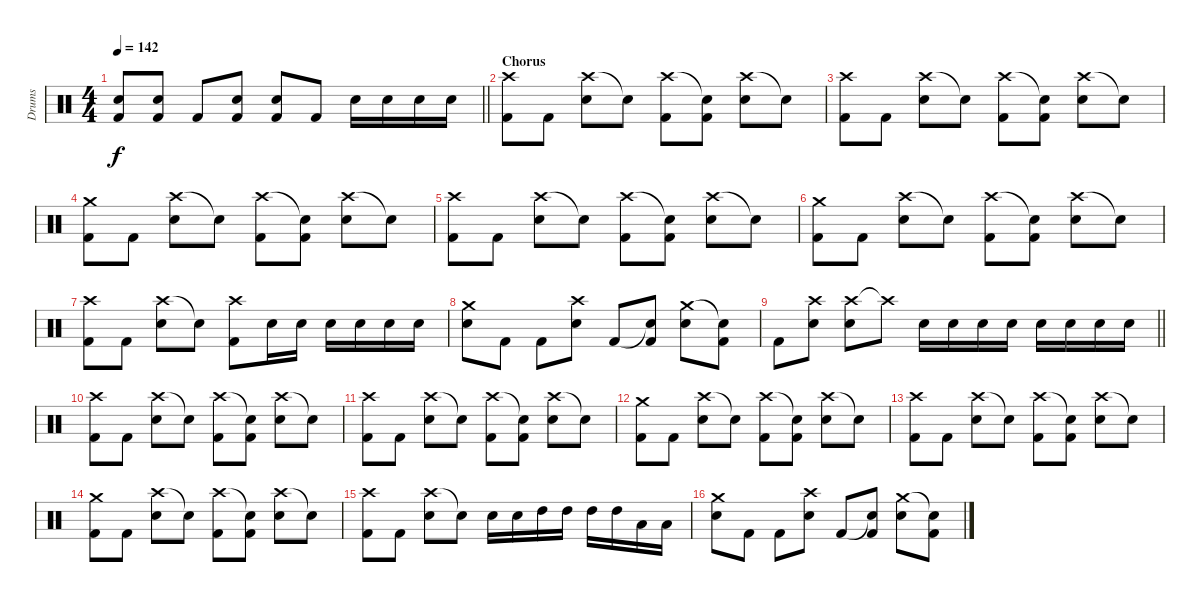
\track ("Drums" "Drums") {instrument percussion}
\staff {score}
\articulation defaults
\ts (4 4)
\tempo 142
\clef neutral
\barLineRight lightlight
\ks c
("Electric Snare (hit)" "Kick (hit) 2").8{dy f} ("Electric Snare (hit)" "Kick (hit) 2").8 "Kick (hit) 2".8 ("Electric Snare (hit)" "Kick (hit) 2").8 ("Electric Snare (hit)" "Kick (hit) 2").8 "Kick (hit) 2".8 "Electric Snare (hit)".16 "Electric Snare (hit)".16 "Electric Snare (hit)".16 "Electric Snare (hit)".16 |
\section ("" "Chorus")
("Crash high (hit)" "Kick (hit) 2").8 "Kick (hit) 2".8 ("Crash high (hit)" "Electric Snare (hit)").8 "Snare (hit)"{t}.8 ("Crash high (hit)" "Kick (hit) 2").8 ("Snare (hit)"{t} "Kick (hit) 2").8 ("Crash high (hit)" "Electric Snare (hit)").8 "Snare (hit)"{t}.8 |
("Crash high (hit)" "Kick (hit) 2").8 "Kick (hit) 2".8 ("Crash high (hit)" "Electric Snare (hit)").8 "Snare (hit)"{t}.8 ("Crash high (hit)" "Kick (hit) 2").8 ("Snare (hit)"{t} "Kick (hit) 2").8 ("Crash high (hit)" "Electric Snare (hit)").8 "Snare (hit)"{t}.8 |
("Crash medium (hit)" "Kick (hit) 2").8 "Kick (hit) 2".8 ("Crash high (hit)" "Electric Snare (hit)").8 "Snare (hit)"{t}.8 ("Crash high (hit)" "Kick (hit) 2").8 ("Snare (hit)"{t} "Kick (hit) 2").8 ("Crash high (hit)" "Electric Snare (hit)").8 "Snare (hit)"{t}.8 |
("Crash high (hit)" "Kick (hit) 2").8 "Kick (hit) 2".8 ("Crash high (hit)" "Electric Snare (hit)").8 "Snare (hit)"{t}.8 ("Crash high (hit)" "Kick (hit) 2").8 ("Snare (hit)"{t} "Kick (hit) 2").8 ("Crash high (hit)" "Electric Snare (hit)").8 "Snare (hit)"{t}.8 |
("Crash medium (hit)" "Kick (hit) 2").8 "Kick (hit) 2".8 ("Crash high (hit)" "Electric Snare (hit)").8 "Snare (hit)"{t}.8 ("Crash high (hit)" "Kick (hit) 2").8 ("Snare (hit)"{t} "Kick (hit) 2").8 ("Crash high (hit)" "Electric Snare (hit)").8 "Snare (hit)"{t}.8 |
("Crash high (hit)" "Kick (hit) 2").8 "Kick (hit) 2".8 ("Crash high (hit)" "Electric Snare (hit)").8 "Snare (hit)"{t}.8 ("Crash high (hit)" "Kick (hit) 2").8 "Electric Snare (hit)".16 "Electric Snare (hit)".16 "Electric Snare (hit)".16 "Electric Snare (hit)".16 "Electric Snare (hit)".16 "Electric Snare (hit)".16 |
("Crash medium (hit)" "Electric Snare (hit)").8 "Kick (hit) 2".8 "Kick (hit) 2".8 ("Crash high (hit)" "Electric Snare (hit)").8 "Kick (hit) 2".8 ("Snare (hit)"{t} "Kick (hit) 2").8 ("Crash medium (hit)" "Electric Snare (hit)").8 ("Snare (hit)"{t} "Kick (hit) 2").8 |
\barLineRight lightlight "Kick (hit) 2".8
("Crash high (hit)" "Electric Snare (hit)").8 ("Crash high (hit)" "Electric Snare (hit)").8 "Crash high (hit)"{t}.8 "Electric Snare (hit)".16 "Electric Snare (hit)".16 "Electric Snare (hit)".16 "Electric Snare (hit)".16 "Electric Snare (hit)".16 "Electric Snare (hit)".16 "Electric Snare (hit)".16 "Electric Snare (hit)".16 |
("Crash high (hit)" "Kick (hit) 2").8 "Kick (hit) 2".8 ("Crash high (hit)" "Electric Snare (hit)").8 "Snare (hit)"{t}.8 ("Crash high (hit)" "Kick (hit) 2").8 ("Snare (hit)"{t} "Kick (hit) 2").8 ("Crash high (hit)" "Electric Snare (hit)").8 "Snare (hit)"{t}.8 |
("Crash high (hit)" "Kick (hit) 2").8 "Kick (hit) 2".8 ("Crash high (hit)" "Electric Snare (hit)").8 "Snare (hit)"{t}.8 ("Crash high (hit)" "Kick (hit) 2").8 ("Snare (hit)"{t} "Kick (hit) 2").8 ("Crash high (hit)" "Electric Snare (hit)").8 "Snare (hit)"{t}.8 |
("Crash medium (hit)" "Kick (hit) 2").8 "Kick (hit) 2".8 ("Crash high (hit)" "Electric Snare (hit)").8 "Snare (hit)"{t}.8 ("Crash high (hit)" "Kick (hit) 2").8 ("Snare (hit)"{t} "Kick (hit) 2").8 ("Crash high (hit)" "Electric Snare (hit)").8 "Snare (hit)"{t}.8 |
("Crash high (hit)" "Kick (hit) 2").8 "Kick (hit) 2".8 ("Crash high (hit)" "Electric Snare (hit)").8 "Snare (hit)"{t}.8 ("Crash high (hit)" "Kick (hit) 2").8 ("Snare (hit)"{t} "Kick (hit) 2").8 ("Crash high (hit)" "Electric Snare (hit)").8 "Snare (hit)"{t}.8 |
("Crash medium (hit)" "Kick (hit) 2").8 "Kick (hit) 2".8 ("Crash high (hit)" "Electric Snare (hit)").8 "Snare (hit)"{t}.8 ("Crash high (hit)" "Kick (hit) 2").8 ("Snare (hit)"{t} "Kick (hit) 2").8 ("Crash high (hit)" "Electric Snare (hit)").8 "Snare (hit)"{t}.8 |
("Crash high (hit)" "Kick (hit) 2").8 "Kick (hit) 2".8 ("Crash high (hit)" "Electric Snare (hit)").8 "Snare (hit)"{t}.8 "Electric Snare (hit)".16 "Electric Snare (hit)".16 "High Tom (hit)".16 "High Tom (hit)".16 "High Tom (hit)".16 "High Tom (hit)".16 "Low Tom (hit)".16 "Low Tom (hit)".16 |
("Crash medium (hit)" "Electric Snare (hit)").8 "Kick (hit) 2".8 "Kick (hit) 2".8 ("Crash high (hit)" "Electric Snare (hit)").8 "Kick (hit) 2".8 ("Snare (hit)"{t} "Kick (hit) 2").8 ("Crash medium (hit)" "Electric Snare (hit)").8 ("Snare (hit)"{t} "Kick (hit) 2").8
